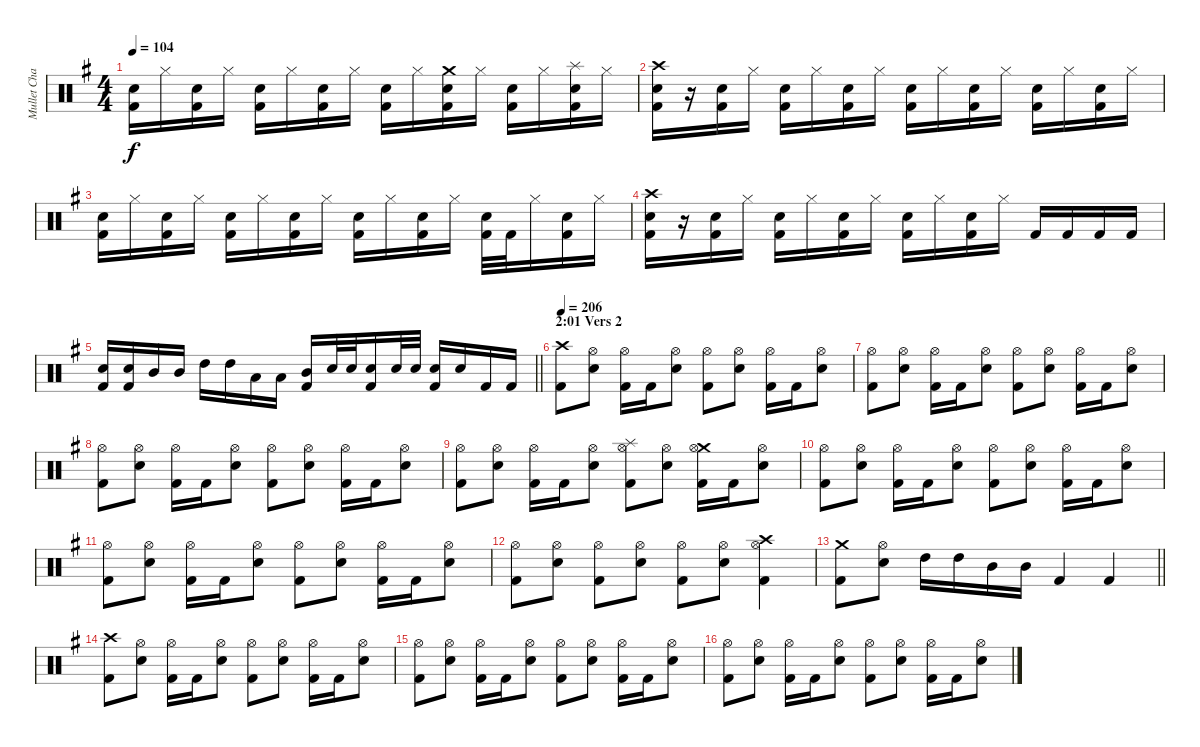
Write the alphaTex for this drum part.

\track ("Mullet Chad" "Mullet Cha") {instrument percussion}
\staff {score}
\articulation defaults
\ts (4 4)
\tempo 104
\clef neutral
\ks g
("Snare (hit) 2" "Kick (hit) 2").16{dy f} "Hi-Hat (closed)".16 ("Snare (hit) 2" "Kick (hit) 2").16 "Hi-Hat (closed)".16 ("Snare (hit) 2" "Kick (hit) 2").16 "Hi-Hat (closed)".16 ("Snare (hit) 2" "Kick (hit) 2").16 "Hi-Hat (closed)".16 ("Snare (hit) 2" "Kick (hit) 2").16 "Hi-Hat (closed)".16 ("Crash medium (hit)" "Snare (hit) 2" "Kick (hit) 2").16 "Hi-Hat (closed)".16 ("Snare (hit) 2" "Kick (hit) 2").16 "Hi-Hat (closed)".16 ("Splash (hit)" "Snare (hit) 2" "Kick (hit) 2").16 "Hi-Hat (closed)".16 |
("Crash high (hit)" "Snare (hit) 2" "Kick (hit) 2").16 r.16 ("Snare (hit) 2" "Kick (hit) 2").16 "Hi-Hat (closed)".16 ("Snare (hit) 2" "Kick (hit) 2").16 "Hi-Hat (closed)".16 ("Snare (hit) 2" "Kick (hit) 2").16 "Hi-Hat (closed)".16 ("Snare (hit) 2" "Kick (hit) 2").16 "Hi-Hat (closed)".16 ("Snare (hit) 2" "Kick (hit) 2").16 "Hi-Hat (closed)".16 ("Snare (hit) 2" "Kick (hit) 2").16 "Hi-Hat (closed)".16 ("Snare (hit) 2" "Kick (hit) 2").16 "Hi-Hat (closed)".16 |
("Snare (hit) 2" "Kick (hit) 2").16 "Hi-Hat (closed)".16 ("Snare (hit) 2" "Kick (hit) 2").16 "Hi-Hat (closed)".16 ("Snare (hit) 2" "Kick (hit) 2").16 "Hi-Hat (closed)".16 ("Snare (hit) 2" "Kick (hit) 2").16 "Hi-Hat (closed)".16 ("Snare (hit) 2" "Kick (hit) 2").16 "Hi-Hat (closed)".16 ("Snare (hit) 2" "Kick (hit) 2").16 "Hi-Hat (closed)".16 ("Snare (hit) 2" "Kick (hit) 2").32 "Kick (hit) 2".32 "Hi-Hat (closed)".16 ("Snare (hit) 2" "Kick (hit) 2").16 "Hi-Hat (closed)".16 |
("Crash high (hit)" "Snare (hit) 2" "Kick (hit) 2").16 r.16 ("Snare (hit) 2" "Kick (hit) 2").16 "Hi-Hat (closed)".16 ("Snare (hit) 2" "Kick (hit) 2").16 "Hi-Hat (closed)".16 ("Snare (hit) 2" "Kick (hit) 2").16 "Hi-Hat (closed)".16 ("Snare (hit) 2" "Kick (hit) 2").16 "Hi-Hat (closed)".16 ("Snare (hit) 2" "Kick (hit) 2").16 "Hi-Hat (closed)".16 "Kick (hit) 2".16 "Kick (hit) 2".16 "Kick (hit) 2".16 "Kick (hit) 2".16 |
\barLineRight lightlight
("Snare (hit) 2" "Kick (hit) 2").16 ("Snare (hit) 2" "Kick (hit) 2").16 "Mid Tom (hit)".16 "Mid Tom (hit)".16 "High Tom (hit)".16 "High Tom (hit)".16 "Low Tom (hit)".16 "Low Tom (hit)".16 ("Mid Tom (hit)" "Kick (hit) 2").16 "Snare (hit) 2".32 "Snare (hit) 2".32 ("Snare (hit) 2" "Kick (hit) 2").16 "Snare (hit) 2".32 "Snare (hit) 2".32 ("Snare (hit) 2" "Kick (hit) 2").16 "Snare (hit) 2".16 "Kick (hit) 2".16 "Kick (hit) 2".16 |
\section ("" "2:01 Vers 2")
\tempo 206
("Crash high (hit)" "Kick (hit) 2").8 ("Hi-Hat (open)" "Snare (hit) 2").8 ("Hi-Hat (open)" "Kick (hit) 2").16 "Kick (hit) 2".16 ("Hi-Hat (open)" "Snare (hit) 2").8 ("Hi-Hat (open)" "Kick (hit) 2").8 ("Hi-Hat (open)" "Snare (hit) 2").8 ("Hi-Hat (open)" "Kick (hit) 2").16 "Kick (hit) 2".16 ("Hi-Hat (open)" "Snare (hit) 2").8 |
("Hi-Hat (open)" "Kick (hit) 2").8 ("Hi-Hat (open)" "Snare (hit) 2").8 ("Hi-Hat (open)" "Kick (hit) 2").16 "Kick (hit) 2".16 ("Hi-Hat (open)" "Snare (hit) 2").8 ("Hi-Hat (open)" "Kick (hit) 2").8 ("Hi-Hat (open)" "Snare (hit) 2").8 ("Hi-Hat (open)" "Kick (hit) 2").16 "Kick (hit) 2".16 ("Hi-Hat (open)" "Snare (hit) 2").8 |
("Hi-Hat (open)" "Kick (hit) 2").8 ("Hi-Hat (open)" "Snare (hit) 2").8 ("Hi-Hat (open)" "Kick (hit) 2").16 "Kick (hit) 2".16 ("Hi-Hat (open)" "Snare (hit) 2").8 ("Hi-Hat (open)" "Kick (hit) 2").8 ("Hi-Hat (open)" "Snare (hit) 2").8 ("Hi-Hat (open)" "Kick (hit) 2").16 "Kick (hit) 2".16 ("Hi-Hat (open)" "Snare (hit) 2").8 |
("Hi-Hat (open)" "Kick (hit) 2").8 ("Hi-Hat (open)" "Snare (hit) 2").8 ("Hi-Hat (open)" "Kick (hit) 2").16 "Kick (hit) 2".16 ("Hi-Hat (open)" "Snare (hit) 2").8 ("Splash (hit)" "Hi-Hat (open)" "Kick (hit) 2").8 ("Hi-Hat (open)" "Snare (hit) 2").8 ("Crash medium (hit)" "Hi-Hat (open)" "Kick (hit) 2").16 "Kick (hit) 2".16 ("Hi-Hat (open)" "Snare (hit) 2").8 |
("Hi-Hat (open)" "Kick (hit) 2").8 ("Hi-Hat (open)" "Snare (hit) 2").8 ("Hi-Hat (open)" "Kick (hit) 2").16 "Kick (hit) 2".16 ("Hi-Hat (open)" "Snare (hit) 2").8 ("Hi-Hat (open)" "Kick (hit) 2").8 ("Hi-Hat (open)" "Snare (hit) 2").8 ("Hi-Hat (open)" "Kick (hit) 2").16 "Kick (hit) 2".16 ("Hi-Hat (open)" "Snare (hit) 2").8 |
("Hi-Hat (open)" "Kick (hit) 2").8 ("Hi-Hat (open)" "Snare (hit) 2").8 ("Hi-Hat (open)" "Kick (hit) 2").16 "Kick (hit) 2".16 ("Hi-Hat (open)" "Snare (hit) 2").8 ("Hi-Hat (open)" "Kick (hit) 2").8 ("Hi-Hat (open)" "Snare (hit) 2").8 ("Hi-Hat (open)" "Kick (hit) 2").16 "Kick (hit) 2".16 ("Hi-Hat (open)" "Snare (hit) 2").8 |
("Hi-Hat (open)" "Kick (hit) 2").8 ("Hi-Hat (open)" "Snare (hit) 2").8 ("Hi-Hat (open)" "Kick (hit) 2").8 ("Hi-Hat (open)" "Snare (hit) 2").8 ("Hi-Hat (open)" "Kick (hit) 2").8 ("Hi-Hat (open)" "Snare (hit) 2").8 ("Crash high (hit)" "Hi-Hat (open)" "Kick (hit) 2").4 |
\barLineRight lightlight
("Crash medium (hit)" "Kick (hit) 2").8 ("Hi-Hat (open)" "Snare (hit) 2").8 "High Tom (hit)".16 "High Tom (hit)".16 "Mid Tom (hit)".16 "Mid Tom (hit)".16 "Kick (hit) 2".4 "Kick (hit) 2".4 |
("Crash high (hit)" "Kick (hit) 2").8 ("Hi-Hat (open)" "Snare (hit) 2").8 ("Hi-Hat (open)" "Kick (hit) 2").16 "Kick (hit) 2".16 ("Hi-Hat (open)" "Snare (hit) 2").8 ("Hi-Hat (open)" "Kick (hit) 2").8 ("Hi-Hat (open)" "Snare (hit) 2").8 ("Hi-Hat (open)" "Kick (hit) 2").16 "Kick (hit) 2".16 ("Hi-Hat (open)" "Snare (hit) 2").8 |
("Hi-Hat (open)" "Kick (hit) 2").8 ("Hi-Hat (open)" "Snare (hit) 2").8 ("Hi-Hat (open)" "Kick (hit) 2").16 "Kick (hit) 2".16 ("Hi-Hat (open)" "Snare (hit) 2").8 ("Hi-Hat (open)" "Kick (hit) 2").8 ("Hi-Hat (open)" "Snare (hit) 2").8 ("Hi-Hat (open)" "Kick (hit) 2").16 "Kick (hit) 2".16 ("Hi-Hat (open)" "Snare (hit) 2").8 |
("Hi-Hat (open)" "Kick (hit) 2").8 ("Hi-Hat (open)" "Snare (hit) 2").8 ("Hi-Hat (open)" "Kick (hit) 2").16 "Kick (hit) 2".16 ("Hi-Hat (open)" "Snare (hit) 2").8 ("Hi-Hat (open)" "Kick (hit) 2").8 ("Hi-Hat (open)" "Snare (hit) 2").8 ("Hi-Hat (open)" "Kick (hit) 2").16 "Kick (hit) 2".16 ("Hi-Hat (open)" "Snare (hit) 2").8
